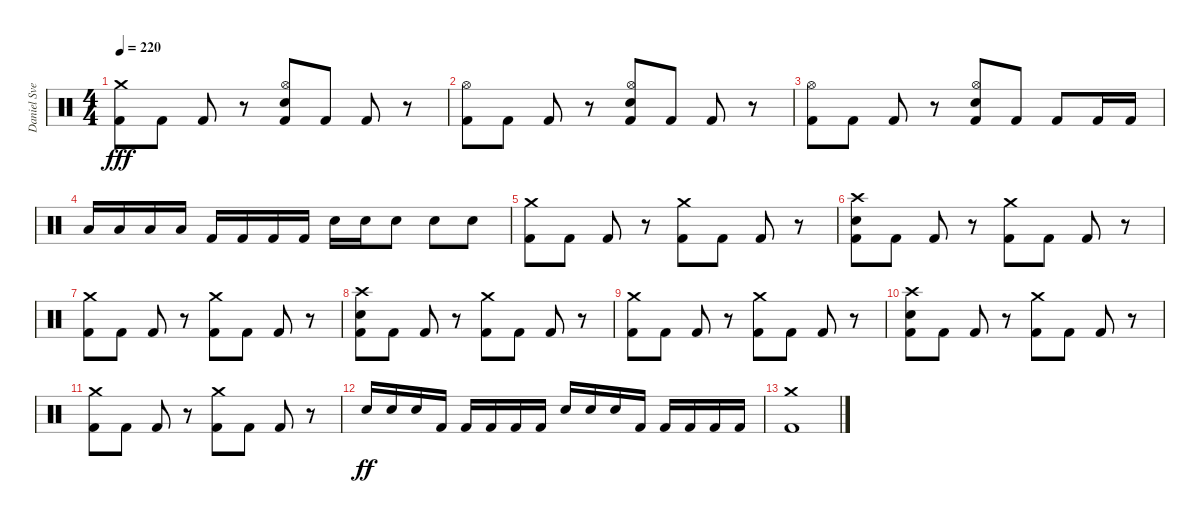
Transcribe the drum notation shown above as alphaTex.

\track ("Daniel Svensson" "Daniel Sve") {instrument percussion}
\staff {score}
\articulation defaults
\ts (4 4)
\tempo 220
\clef neutral
\ks c
("Crash medium (hit)" "Kick (hit) 2").8{dy fff} "Kick (hit) 2".8 "Kick (hit) 2".8 r.8 ("Hi-Hat (open)" "Electric Snare (hit)" "Kick (hit) 2").8 "Kick (hit) 2".8 "Kick (hit) 2".8 r.8 |
("Hi-Hat (open)" "Kick (hit) 2").8 "Kick (hit) 2".8 "Kick (hit) 2".8 r.8 ("Hi-Hat (open)" "Electric Snare (hit)" "Kick (hit) 2").8 "Kick (hit) 2".8 "Kick (hit) 2".8 r.8 |
("Hi-Hat (open)" "Kick (hit) 2").8 "Kick (hit) 2".8 "Kick (hit) 2".8 r.8 ("Hi-Hat (open)" "Electric Snare (hit)" "Kick (hit) 2").8 "Kick (hit) 2".8 "Kick (hit) 2".8 "Kick (hit) 2".16 "Kick (hit) 2".16 |
"Low Floor Tom (hit)".16 "Low Floor Tom (hit)".16 "Low Floor Tom (hit)".16 "Low Floor Tom (hit)".16 "Kick (hit) 2".16 "Kick (hit) 2".16 "Kick (hit) 2".16 "Kick (hit) 2".16 "Electric Snare (hit)".16 "Electric Snare (hit)".16 "Electric Snare (hit)".8 "Electric Snare (hit)".8 "Electric Snare (hit)".8 |
("Crash medium (hit)" "Kick (hit) 2").8 "Kick (hit) 2".8 "Kick (hit) 2".8 r.8 ("Crash medium (hit)" "Kick (hit) 2").8 "Kick (hit) 2".8 "Kick (hit) 2".8 r.8 |
("Crash high (hit)" "Electric Snare (hit)" "Kick (hit) 2").8 "Kick (hit) 2".8 "Kick (hit) 2".8 r.8 ("Crash medium (hit)" "Kick (hit) 2").8 "Kick (hit) 2".8 "Kick (hit) 2".8 r.8 |
("Crash medium (hit)" "Kick (hit) 2").8 "Kick (hit) 2".8 "Kick (hit) 2".8 r.8 ("Crash medium (hit)" "Kick (hit) 2").8 "Kick (hit) 2".8 "Kick (hit) 2".8 r.8 |
("Crash high (hit)" "Electric Snare (hit)" "Kick (hit) 2").8 "Kick (hit) 2".8 "Kick (hit) 2".8 r.8 ("Crash medium (hit)" "Kick (hit) 2").8 "Kick (hit) 2".8 "Kick (hit) 2".8 r.8 |
("Crash medium (hit)" "Kick (hit) 2").8 "Kick (hit) 2".8 "Kick (hit) 2".8 r.8 ("Crash medium (hit)" "Kick (hit) 2").8 "Kick (hit) 2".8 "Kick (hit) 2".8 r.8 |
("Crash high (hit)" "Electric Snare (hit)" "Kick (hit) 2").8 "Kick (hit) 2".8 "Kick (hit) 2".8 r.8 ("Crash medium (hit)" "Kick (hit) 2").8 "Kick (hit) 2".8 "Kick (hit) 2".8 r.8 |
("Crash medium (hit)" "Kick (hit) 2").8 "Kick (hit) 2".8 "Kick (hit) 2".8 r.8 ("Crash medium (hit)" "Kick (hit) 2").8 "Kick (hit) 2".8 "Kick (hit) 2".8 r.8 |
"Electric Snare (hit)".16{dy ff} "Electric Snare (hit)".16 "Electric Snare (hit)".16 "Kick (hit) 2".16 "Kick (hit) 2".16 "Kick (hit) 2".16 "Kick (hit) 2".16 "Kick (hit) 2".16 "Electric Snare (hit)".16 "Electric Snare (hit)".16 "Electric Snare (hit)".16 "Kick (hit) 2".16 "Kick (hit) 2".16 "Kick (hit) 2".16 "Kick (hit) 2".16 "Kick (hit) 2".16 |
("Crash medium (hit)" "Kick (hit) 2").1
